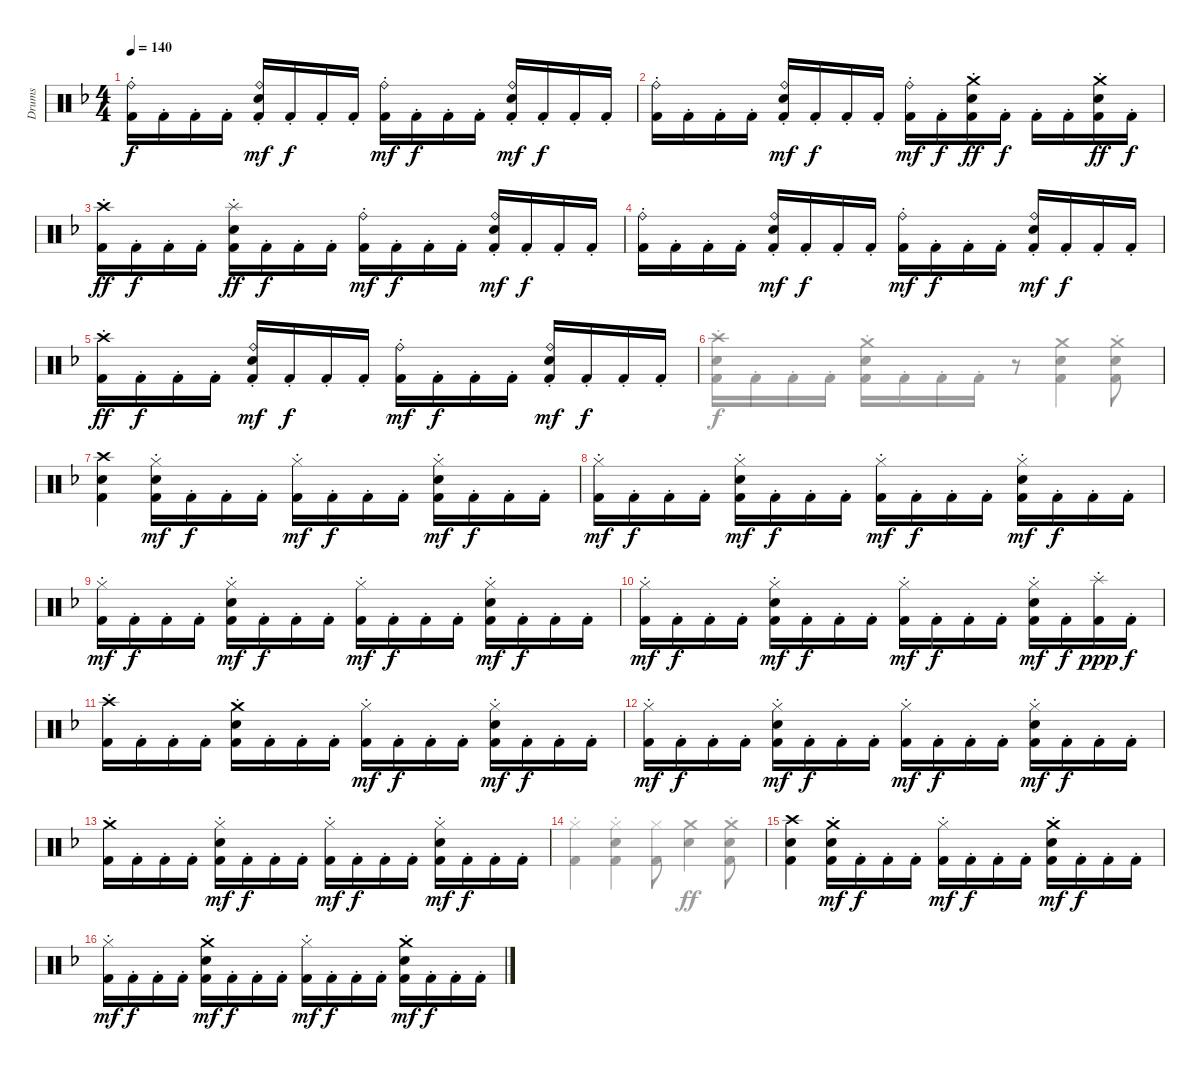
\track ("Drums" "Drums") {instrument percussion}
\staff {score}
\articulation defaults
\voice
\ts (4 4)
\tempo 140
\clef neutral
\ks dminor
("Kick (hit) 2"{st} "Ride (bell)").16{dy f} "Kick (hit) 2"{st}.16 "Kick (hit) 2"{st}.16 "Kick (hit) 2"{st}.16 ("Kick (hit) 2"{st} "Ride (bell)" "Electric Snare (hit)").16{dy mf} "Kick (hit) 2"{st}.16{dy f} "Kick (hit) 2"{st}.16 "Kick (hit) 2"{st}.16 ("Kick (hit) 2"{st} "Ride (bell)").16{dy mf} "Kick (hit) 2"{st}.16{dy f} "Kick (hit) 2"{st}.16 "Kick (hit) 2"{st}.16 ("Kick (hit) 2"{st} "Ride (bell)" "Electric Snare (hit)").16{dy mf} "Kick (hit) 2"{st}.16{dy f} "Kick (hit) 2"{st}.16 "Kick (hit) 2"{st}.16 |
("Kick (hit) 2"{st} "Ride (bell)").16 "Kick (hit) 2"{st}.16 "Kick (hit) 2"{st}.16 "Kick (hit) 2"{st}.16 ("Kick (hit) 2"{st} "Ride (bell)" "Electric Snare (hit)").16{dy mf} "Kick (hit) 2"{st}.16{dy f} "Kick (hit) 2"{st}.16 "Kick (hit) 2"{st}.16 ("Kick (hit) 2"{st} "Ride (bell)").16{dy mf} "Kick (hit) 2"{st}.16{dy f} ("Kick (hit) 2"{st} "Electric Snare (hit)" "Crash medium (hit)").16{dy ff} "Kick (hit) 2"{st}.16{dy f} "Kick (hit) 2"{st}.16 "Kick (hit) 2"{st}.16 ("Kick (hit) 2"{st} "Electric Snare (hit)" "Crash medium (hit)").16{dy ff} "Kick (hit) 2"{st}.16{dy f} |
("Kick (hit) 2"{st} "Crash high (hit)").16{dy ff} "Kick (hit) 2"{st}.16{dy f} "Kick (hit) 2"{st}.16 "Kick (hit) 2"{st}.16 ("Kick (hit) 2"{st} "Splash (hit)" "Electric Snare (hit)").16{dy ff} "Kick (hit) 2"{st}.16{dy f} "Kick (hit) 2"{st}.16 "Kick (hit) 2"{st}.16 ("Kick (hit) 2"{st} "Ride (bell)").16{dy mf} "Kick (hit) 2"{st}.16{dy f} "Kick (hit) 2"{st}.16 "Kick (hit) 2"{st}.16 ("Kick (hit) 2"{st} "Ride (bell)" "Electric Snare (hit)").16{dy mf} "Kick (hit) 2"{st}.16{dy f} "Kick (hit) 2"{st}.16 "Kick (hit) 2"{st}.16 |
("Kick (hit) 2"{st} "Ride (bell)").16 "Kick (hit) 2"{st}.16 "Kick (hit) 2"{st}.16 "Kick (hit) 2"{st}.16 ("Kick (hit) 2"{st} "Ride (bell)" "Electric Snare (hit)").16{dy mf} "Kick (hit) 2"{st}.16{dy f} "Kick (hit) 2"{st}.16 "Kick (hit) 2"{st}.16 ("Kick (hit) 2"{st} "Ride (bell)").16{dy mf} "Kick (hit) 2"{st}.16{dy f} "Kick (hit) 2"{st}.16 "Kick (hit) 2"{st}.16 ("Kick (hit) 2"{st} "Ride (bell)" "Electric Snare (hit)").16{dy mf} "Kick (hit) 2"{st}.16{dy f} "Kick (hit) 2"{st}.16 "Kick (hit) 2"{st}.16 |
("Kick (hit) 2"{st} "Crash high (hit)").16{dy ff} "Kick (hit) 2"{st}.16{dy f} "Kick (hit) 2"{st}.16 "Kick (hit) 2"{st}.16 ("Kick (hit) 2"{st} "Ride (bell)" "Electric Snare (hit)").16{dy mf} "Kick (hit) 2"{st}.16{dy f} "Kick (hit) 2"{st}.16 "Kick (hit) 2"{st}.16 ("Kick (hit) 2"{st} "Ride (bell)").16{dy mf} "Kick (hit) 2"{st}.16{dy f} "Kick (hit) 2"{st}.16 "Kick (hit) 2"{st}.16 ("Kick (hit) 2"{st} "Ride (bell)" "Electric Snare (hit)").16{dy mf} "Kick (hit) 2"{st}.16{dy f} "Kick (hit) 2"{st}.16 "Kick (hit) 2"{st}.16 |
|
("Crash high (hit)" "Electric Snare (hit)" "Kick (hit) 2").4 ("Kick (hit) 2"{st} "Hi-Hat (closed)" "Electric Snare (hit)").16{dy mf} "Kick (hit) 2"{st}.16{dy f} "Kick (hit) 2"{st}.16 "Kick (hit) 2"{st}.16 ("Kick (hit) 2"{st} "Hi-Hat (closed)").16{dy mf} "Kick (hit) 2"{st}.16{dy f} "Kick (hit) 2"{st}.16 "Kick (hit) 2"{st}.16 ("Kick (hit) 2"{st} "Hi-Hat (closed)" "Electric Snare (hit)").16{dy mf} "Kick (hit) 2"{st}.16{dy f} "Kick (hit) 2"{st}.16 "Kick (hit) 2"{st}.16 |
("Kick (hit) 2"{st} "Hi-Hat (closed)").16{dy mf} "Kick (hit) 2"{st}.16{dy f} "Kick (hit) 2"{st}.16 "Kick (hit) 2"{st}.16 ("Kick (hit) 2"{st} "Hi-Hat (closed)" "Electric Snare (hit)").16{dy mf} "Kick (hit) 2"{st}.16{dy f} "Kick (hit) 2"{st}.16 "Kick (hit) 2"{st}.16 ("Kick (hit) 2"{st} "Hi-Hat (closed)").16{dy mf} "Kick (hit) 2"{st}.16{dy f} "Kick (hit) 2"{st}.16 "Kick (hit) 2"{st}.16 ("Kick (hit) 2"{st} "Hi-Hat (closed)" "Electric Snare (hit)").16{dy mf} "Kick (hit) 2"{st}.16{dy f} "Kick (hit) 2"{st}.16 "Kick (hit) 2"{st}.16 |
("Kick (hit) 2"{st} "Hi-Hat (closed)").16{dy mf} "Kick (hit) 2"{st}.16{dy f} "Kick (hit) 2"{st}.16 "Kick (hit) 2"{st}.16 ("Kick (hit) 2"{st} "Hi-Hat (closed)" "Electric Snare (hit)").16{dy mf} "Kick (hit) 2"{st}.16{dy f} "Kick (hit) 2"{st}.16 "Kick (hit) 2"{st}.16 ("Kick (hit) 2"{st} "Hi-Hat (closed)").16{dy mf} "Kick (hit) 2"{st}.16{dy f} "Kick (hit) 2"{st}.16 "Kick (hit) 2"{st}.16 ("Kick (hit) 2"{st} "Hi-Hat (closed)" "Electric Snare (hit)").16{dy mf} "Kick (hit) 2"{st}.16{dy f} "Kick (hit) 2"{st}.16 "Kick (hit) 2"{st}.16 |
("Kick (hit) 2"{st} "Hi-Hat (closed)").16{dy mf} "Kick (hit) 2"{st}.16{dy f} "Kick (hit) 2"{st}.16 "Kick (hit) 2"{st}.16 ("Kick (hit) 2"{st} "Hi-Hat (closed)" "Electric Snare (hit)").16{dy mf} "Kick (hit) 2"{st}.16{dy f} "Kick (hit) 2"{st}.16 "Kick (hit) 2"{st}.16 ("Kick (hit) 2"{st} "Hi-Hat (closed)").16{dy mf} "Kick (hit) 2"{st}.16{dy f} "Kick (hit) 2"{st}.16 "Kick (hit) 2"{st}.16 ("Kick (hit) 2"{st} "Hi-Hat (closed)" "Electric Snare (hit)").16{dy mf} "Kick (hit) 2"{st}.16{dy f} ("Kick (hit) 2"{st} "Splash (hit)").16{dy ppp} "Kick (hit) 2"{st}.16{dy f} |
("Kick (hit) 2"{st} "Crash high (hit)").16 "Kick (hit) 2"{st}.16 "Kick (hit) 2"{st}.16 "Kick (hit) 2"{st}.16 ("Kick (hit) 2"{st} "Crash medium (hit)" "Electric Snare (hit)").16 "Kick (hit) 2"{st}.16 "Kick (hit) 2"{st}.16 "Kick (hit) 2"{st}.16 ("Kick (hit) 2"{st} "Hi-Hat (closed)").16{dy mf} "Kick (hit) 2"{st}.16{dy f} "Kick (hit) 2"{st}.16 "Kick (hit) 2"{st}.16 ("Kick (hit) 2"{st} "Hi-Hat (closed)" "Electric Snare (hit)").16{dy mf} "Kick (hit) 2"{st}.16{dy f} "Kick (hit) 2"{st}.16 "Kick (hit) 2"{st}.16 |
("Kick (hit) 2"{st} "Hi-Hat (closed)").16{dy mf} "Kick (hit) 2"{st}.16{dy f} "Kick (hit) 2"{st}.16 "Kick (hit) 2"{st}.16 ("Kick (hit) 2"{st} "Hi-Hat (closed)" "Electric Snare (hit)").16{dy mf} "Kick (hit) 2"{st}.16{dy f} "Kick (hit) 2"{st}.16 "Kick (hit) 2"{st}.16 ("Kick (hit) 2"{st} "Hi-Hat (closed)").16{dy mf} "Kick (hit) 2"{st}.16{dy f} "Kick (hit) 2"{st}.16 "Kick (hit) 2"{st}.16 ("Kick (hit) 2"{st} "Hi-Hat (closed)" "Electric Snare (hit)").16{dy mf} "Kick (hit) 2"{st}.16{dy f} "Kick (hit) 2"{st}.16 "Kick (hit) 2"{st}.16 |
("Kick (hit) 2"{st} "Crash medium (hit)").16 "Kick (hit) 2"{st}.16 "Kick (hit) 2"{st}.16 "Kick (hit) 2"{st}.16 ("Kick (hit) 2"{st} "Hi-Hat (closed)" "Electric Snare (hit)").16{dy mf} "Kick (hit) 2"{st}.16{dy f} "Kick (hit) 2"{st}.16 "Kick (hit) 2"{st}.16 ("Kick (hit) 2"{st} "Hi-Hat (closed)").16{dy mf} "Kick (hit) 2"{st}.16{dy f} "Kick (hit) 2"{st}.16 "Kick (hit) 2"{st}.16 ("Kick (hit) 2"{st} "Hi-Hat (closed)" "Electric Snare (hit)").16{dy mf} "Kick (hit) 2"{st}.16{dy f} "Kick (hit) 2"{st}.16 "Kick (hit) 2"{st}.16 |
|
("Crash high (hit)" "Electric Snare (hit)" "Kick (hit) 2").4 ("Kick (hit) 2"{st} "Crash medium (hit)" "Electric Snare (hit)").16{dy mf} "Kick (hit) 2"{st}.16{dy f} "Kick (hit) 2"{st}.16 "Kick (hit) 2"{st}.16 ("Kick (hit) 2"{st} "Hi-Hat (closed)").16{dy mf} "Kick (hit) 2"{st}.16{dy f} "Kick (hit) 2"{st}.16 "Kick (hit) 2"{st}.16 ("Kick (hit) 2"{st} "Crash medium (hit)" "Electric Snare (hit)").16{dy mf} "Kick (hit) 2"{st}.16{dy f} "Kick (hit) 2"{st}.16 "Kick (hit) 2"{st}.16 |
("Kick (hit) 2"{st} "Hi-Hat (closed)").16{dy mf} "Kick (hit) 2"{st}.16{dy f} "Kick (hit) 2"{st}.16 "Kick (hit) 2"{st}.16 ("Kick (hit) 2"{st} "Crash medium (hit)" "Electric Snare (hit)").16{dy mf} "Kick (hit) 2"{st}.16{dy f} "Kick (hit) 2"{st}.16 "Kick (hit) 2"{st}.16 ("Kick (hit) 2"{st} "Hi-Hat (closed)").16{dy mf} "Kick (hit) 2"{st}.16{dy f} "Kick (hit) 2"{st}.16 "Kick (hit) 2"{st}.16 ("Kick (hit) 2"{st} "Crash medium (hit)" "Electric Snare (hit)").16{dy mf} "Kick (hit) 2"{st}.16{dy f} "Kick (hit) 2"{st}.16 "Kick (hit) 2"{st}.16
\voice
\clef neutral
\ottava regular
\simile none
\ks dminor
|
|
|
|
|
("Kick (hit) 2"{st} "Crash high (hit)" "Electric Snare (hit)").16 "Kick (hit) 2"{st}.16 "Kick (hit) 2"{st}.16 "Kick (hit) 2"{st}.16 ("Kick (hit) 2"{st} "Crash medium (hit)" "Electric Snare (hit)").16 "Kick (hit) 2"{st}.16 "Kick (hit) 2"{st}.16 "Kick (hit) 2"{st}.16 r.8 ("Kick (hit) 2" "Crash medium (hit)" "Electric Snare (hit)").4 ("Kick (hit) 2"{st} "Crash medium (hit)" "Electric Snare (hit)").8 |
|
|
|
|
|
|
|
("Kick (hit) 2"{st} "Hi-Hat (closed)").4 ("Kick (hit) 2"{st} "Hi-Hat (closed)" "Electric Snare (hit)").4 ("Kick (hit) 2" "Hi-Hat (closed)").8{dy f} ("Electric Snare (hit)" "Crash medium (hit)").4{dy ff} ("Kick (hit) 2"{st} "Crash medium (hit)" "Electric Snare (hit)").8 |
|
